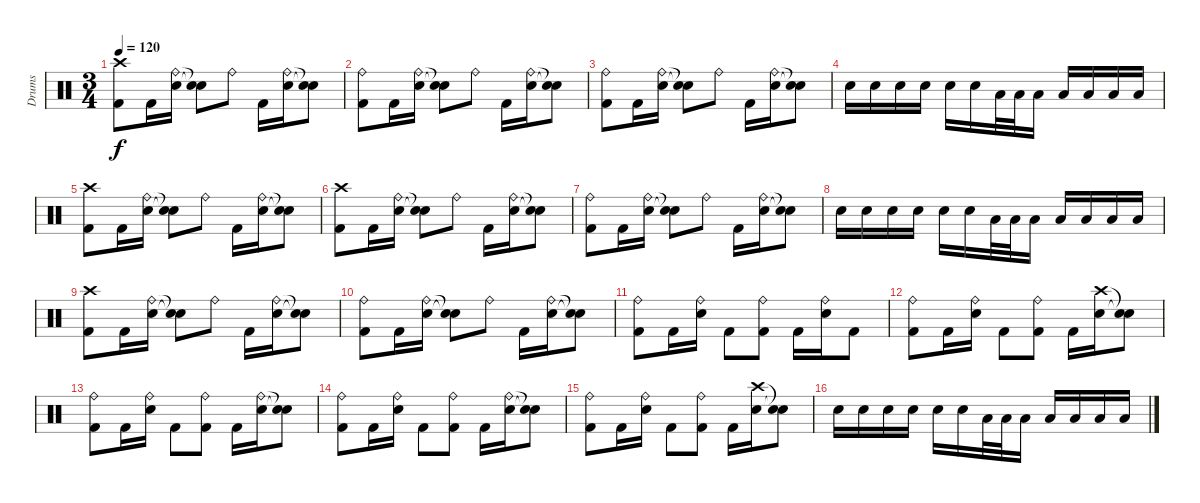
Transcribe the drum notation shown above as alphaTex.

\track ("Drums" "Drums") {instrument percussion}
\staff {score}
\articulation defaults
\ts (3 4)
\tempo 120
\clef neutral
\ks c
("Crash high (hit)" "Kick (hit) 2").8{dy f} "Kick (hit) 2".16 ("Ride (bell)" "Electric Snare (hit)").16 ("Snare (hit)"{t} "Snare (hit)"{t}).8 "Ride (bell)".8 "Kick (hit) 2".16 ("Ride (bell)" "Electric Snare (hit)").16 ("Snare (hit)"{t} "Snare (hit)"{t}).8 |
("Ride (bell)" "Kick (hit) 2").8 "Kick (hit) 2".16 ("Ride (bell)" "Electric Snare (hit)").16 ("Snare (hit)"{t} "Snare (hit)"{t}).8 "Ride (bell)".8 "Kick (hit) 2".16 ("Ride (bell)" "Electric Snare (hit)").16 ("Snare (hit)"{t} "Snare (hit)"{t}).8 |
("Ride (bell)" "Kick (hit) 2").8 "Kick (hit) 2".16 ("Ride (bell)" "Electric Snare (hit)").16 ("Snare (hit)"{t} "Snare (hit)"{t}).8 "Ride (bell)".8 "Kick (hit) 2".16 ("Ride (bell)" "Electric Snare (hit)").16 ("Snare (hit)"{t} "Snare (hit)"{t}).8 |
"Electric Snare (hit)".16 "Electric Snare (hit)".16 "Electric Snare (hit)".16 "Electric Snare (hit)".16 "Electric Snare (hit)".16 "Electric Snare (hit)".16 "Low Tom (hit)".32 "Low Tom (hit)".32 "Low Tom (hit)".16 "Low Tom (hit)".16 "Low Tom (hit)".16 "Low Tom (hit)".16 "Low Tom (hit)".16 |
("Crash high (hit)" "Kick (hit) 2").8 "Kick (hit) 2".16 ("Ride (bell)" "Electric Snare (hit)").16 ("Snare (hit)"{t} "Snare (hit)"{t}).8 "Ride (bell)".8 "Kick (hit) 2".16 ("Ride (bell)" "Electric Snare (hit)").16 ("Snare (hit)"{t} "Snare (hit)"{t}).8 |
("Crash high (hit)" "Kick (hit) 2").8 "Kick (hit) 2".16 ("Ride (bell)" "Electric Snare (hit)").16 ("Snare (hit)"{t} "Snare (hit)"{t}).8 "Ride (bell)".8 "Kick (hit) 2".16 ("Ride (bell)" "Electric Snare (hit)").16 ("Snare (hit)"{t} "Snare (hit)"{t}).8 |
("Ride (bell)" "Kick (hit) 2").8 "Kick (hit) 2".16 ("Ride (bell)" "Electric Snare (hit)").16 ("Snare (hit)"{t} "Snare (hit)"{t}).8 "Ride (bell)".8 "Kick (hit) 2".16 ("Ride (bell)" "Electric Snare (hit)").16 ("Snare (hit)"{t} "Snare (hit)"{t}).8 |
"Electric Snare (hit)".16 "Electric Snare (hit)".16 "Electric Snare (hit)".16 "Electric Snare (hit)".16 "Electric Snare (hit)".16 "Electric Snare (hit)".16 "Low Tom (hit)".32 "Low Tom (hit)".32 "Low Tom (hit)".16 "Low Tom (hit)".16 "Low Tom (hit)".16 "Low Tom (hit)".16 "Low Tom (hit)".16 |
("Crash high (hit)" "Kick (hit) 2").8 "Kick (hit) 2".16 ("Ride (bell)" "Electric Snare (hit)").16 ("Snare (hit)"{t} "Snare (hit)"{t}).8 "Ride (bell)".8 "Kick (hit) 2".16 ("Ride (bell)" "Electric Snare (hit)").16 ("Snare (hit)"{t} "Snare (hit)"{t}).8 |
("Ride (bell)" "Kick (hit) 2").8 "Kick (hit) 2".16 ("Ride (bell)" "Electric Snare (hit)").16 ("Snare (hit)"{t} "Snare (hit)"{t}).8 "Ride (bell)".8 "Kick (hit) 2".16 ("Ride (bell)" "Electric Snare (hit)").16 ("Snare (hit)"{t} "Snare (hit)"{t}).8 |
("Ride (bell)" "Kick (hit) 2").8 "Kick (hit) 2".16 ("Ride (bell)" "Electric Snare (hit)").16 "Kick (hit) 2".8 ("Ride (bell)" "Kick (hit) 2").8 "Kick (hit) 2".16 ("Ride (bell)" "Electric Snare (hit)").16 "Kick (hit) 2".8 |
("Ride (bell)" "Kick (hit) 2").8 "Kick (hit) 2".16 ("Ride (bell)" "Electric Snare (hit)").16 "Kick (hit) 2".8 ("Ride (bell)" "Kick (hit) 2").8 "Kick (hit) 2".16 ("Crash high (hit)" "Electric Snare (hit)").16 ("Snare (hit)"{t} "Snare (hit)"{t}).8 |
("Ride (bell)" "Kick (hit) 2").8 "Kick (hit) 2".16 ("Ride (bell)" "Electric Snare (hit)").16 "Kick (hit) 2".8 ("Ride (bell)" "Kick (hit) 2").8 "Kick (hit) 2".16 ("Ride (bell)" "Electric Snare (hit)").16 ("Snare (hit)"{t} "Snare (hit)"{t}).8 |
("Ride (bell)" "Kick (hit) 2").8 "Kick (hit) 2".16 ("Ride (bell)" "Electric Snare (hit)").16 "Kick (hit) 2".8 ("Ride (bell)" "Kick (hit) 2").8 "Kick (hit) 2".16 ("Ride (bell)" "Electric Snare (hit)").16 ("Snare (hit)"{t} "Snare (hit)"{t}).8 |
("Ride (bell)" "Kick (hit) 2").8 "Kick (hit) 2".16 ("Ride (bell)" "Electric Snare (hit)").16 "Kick (hit) 2".8 ("Ride (bell)" "Kick (hit) 2").8 "Kick (hit) 2".16 ("Crash high (hit)" "Electric Snare (hit)").16 ("Snare (hit)"{t} "Snare (hit)"{t}).8 |
"Electric Snare (hit)".16 "Electric Snare (hit)".16 "Electric Snare (hit)".16 "Electric Snare (hit)".16 "Electric Snare (hit)".16 "Electric Snare (hit)".16 "Low Tom (hit)".32 "Low Tom (hit)".32 "Low Tom (hit)".16 "Low Tom (hit)".16 "Low Tom (hit)".16 "Low Tom (hit)".16 "Low Tom (hit)".16
